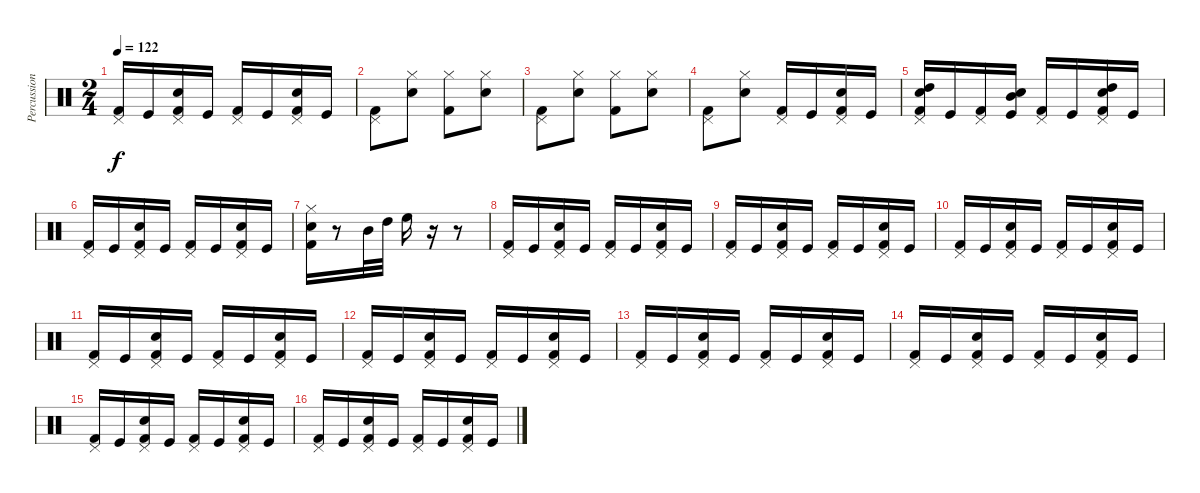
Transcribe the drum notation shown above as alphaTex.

\track ("Percussions" "Percussion") {instrument percussion}
\staff {score}
\articulation defaults
\ts (2 4)
\tempo 122
\clef neutral
\ks c
("Pedal Hi-Hat (hit)" "Kick (hit) 2").16{dy f} "Kick (hit)".16 ("Pedal Hi-Hat (hit)" "Snare (hit) 2" "Kick (hit) 2").16 "Kick (hit)".16 ("Pedal Hi-Hat (hit)" "Kick (hit) 2").16 "Kick (hit)".16 ("Pedal Hi-Hat (hit)" "Snare (hit) 2" "Kick (hit) 2").16 "Kick (hit)".16 |
("Pedal Hi-Hat (hit)" "Kick (hit) 2").8 ("Hi-Hat (closed)" "Snare (hit) 2").8 ("Hi-Hat (closed)" "Kick (hit) 2").8 ("Hi-Hat (closed)" "Snare (hit) 2").8 |
("Pedal Hi-Hat (hit)" "Kick (hit) 2").8 ("Hi-Hat (closed)" "Snare (hit) 2").8 ("Hi-Hat (closed)" "Kick (hit) 2").8 ("Hi-Hat (closed)" "Snare (hit) 2").8 |
("Pedal Hi-Hat (hit)" "Kick (hit) 2").8 ("Hi-Hat (closed)" "Snare (hit) 2").8 ("Pedal Hi-Hat (hit)" "Kick (hit) 2").16 "Kick (hit)".16 ("Pedal Hi-Hat (hit)" "Snare (hit) 2" "Kick (hit) 2").16 "Kick (hit)".16 |
("Pedal Hi-Hat (hit)" "High Tom (hit)" "Snare (hit) 2" "Kick (hit) 2").16 "Kick (hit)".16 ("Pedal Hi-Hat (hit)" "Kick (hit) 2").16 ("Mid Tom (hit)" "Snare (hit) 2" "Kick (hit)").16 ("Pedal Hi-Hat (hit)" "Kick (hit) 2").16 "Kick (hit)".16 ("Pedal Hi-Hat (hit)" "High Tom (hit)" "Snare (hit) 2" "Kick (hit) 2").16 "Kick (hit)".16 |
("Pedal Hi-Hat (hit)" "Kick (hit) 2").16 "Kick (hit)".16 ("Pedal Hi-Hat (hit)" "Snare (hit) 2" "Kick (hit) 2").16 "Kick (hit)".16 ("Pedal Hi-Hat (hit)" "Kick (hit) 2").16 "Kick (hit)".16 ("Pedal Hi-Hat (hit)" "Snare (hit) 2" "Kick (hit) 2").16 "Kick (hit)".16 |
("Hi-Hat (closed)" "Snare (hit) 2" "Kick (hit) 2").16 r.8 "Mid Tom (hit)".32 "High Tom (hit)".32 "High Floor Tom (hit)".16 r.16 r.8 |
("Pedal Hi-Hat (hit)" "Kick (hit) 2").16 "Kick (hit)".16 ("Pedal Hi-Hat (hit)" "Snare (hit) 2" "Kick (hit) 2").16 "Kick (hit)".16 ("Pedal Hi-Hat (hit)" "Kick (hit) 2").16 "Kick (hit)".16 ("Pedal Hi-Hat (hit)" "Snare (hit) 2" "Kick (hit) 2").16 "Kick (hit)".16 |
("Pedal Hi-Hat (hit)" "Kick (hit) 2").16 "Kick (hit)".16 ("Pedal Hi-Hat (hit)" "Snare (hit) 2" "Kick (hit) 2").16 "Kick (hit)".16 ("Pedal Hi-Hat (hit)" "Kick (hit) 2").16 "Kick (hit)".16 ("Pedal Hi-Hat (hit)" "Snare (hit) 2" "Kick (hit) 2").16 "Kick (hit)".16 |
("Pedal Hi-Hat (hit)" "Kick (hit) 2").16 "Kick (hit)".16 ("Pedal Hi-Hat (hit)" "Snare (hit) 2" "Kick (hit) 2").16 "Kick (hit)".16 ("Pedal Hi-Hat (hit)" "Kick (hit) 2").16 "Kick (hit)".16 ("Pedal Hi-Hat (hit)" "Snare (hit) 2" "Kick (hit) 2").16 "Kick (hit)".16 |
("Pedal Hi-Hat (hit)" "Kick (hit) 2").16 "Kick (hit)".16 ("Pedal Hi-Hat (hit)" "Snare (hit) 2" "Kick (hit) 2").16 "Kick (hit)".16 ("Pedal Hi-Hat (hit)" "Kick (hit) 2").16 "Kick (hit)".16 ("Pedal Hi-Hat (hit)" "Snare (hit) 2" "Kick (hit) 2").16 "Kick (hit)".16 |
("Pedal Hi-Hat (hit)" "Kick (hit) 2").16 "Kick (hit)".16 ("Pedal Hi-Hat (hit)" "Snare (hit) 2" "Kick (hit) 2").16 "Kick (hit)".16 ("Pedal Hi-Hat (hit)" "Kick (hit) 2").16 "Kick (hit)".16 ("Pedal Hi-Hat (hit)" "Snare (hit) 2" "Kick (hit) 2").16 "Kick (hit)".16 |
("Pedal Hi-Hat (hit)" "Kick (hit) 2").16 "Kick (hit)".16 ("Pedal Hi-Hat (hit)" "Snare (hit) 2" "Kick (hit) 2").16 "Kick (hit)".16 ("Pedal Hi-Hat (hit)" "Kick (hit) 2").16 "Kick (hit)".16 ("Pedal Hi-Hat (hit)" "Snare (hit) 2" "Kick (hit) 2").16 "Kick (hit)".16 |
("Pedal Hi-Hat (hit)" "Kick (hit) 2").16 "Kick (hit)".16 ("Pedal Hi-Hat (hit)" "Snare (hit) 2" "Kick (hit) 2").16 "Kick (hit)".16 ("Pedal Hi-Hat (hit)" "Kick (hit) 2").16 "Kick (hit)".16 ("Pedal Hi-Hat (hit)" "Snare (hit) 2" "Kick (hit) 2").16 "Kick (hit)".16 |
("Pedal Hi-Hat (hit)" "Kick (hit) 2").16 "Kick (hit)".16 ("Pedal Hi-Hat (hit)" "Snare (hit) 2" "Kick (hit) 2").16 "Kick (hit)".16 ("Pedal Hi-Hat (hit)" "Kick (hit) 2").16 "Kick (hit)".16 ("Pedal Hi-Hat (hit)" "Snare (hit) 2" "Kick (hit) 2").16 "Kick (hit)".16 |
("Pedal Hi-Hat (hit)" "Kick (hit) 2").16 "Kick (hit)".16 ("Pedal Hi-Hat (hit)" "Snare (hit) 2" "Kick (hit) 2").16 "Kick (hit)".16 ("Pedal Hi-Hat (hit)" "Kick (hit) 2").16 "Kick (hit)".16 ("Pedal Hi-Hat (hit)" "Snare (hit) 2" "Kick (hit) 2").16 "Kick (hit)".16
